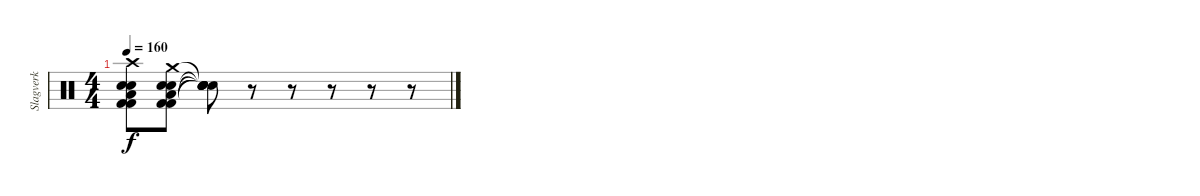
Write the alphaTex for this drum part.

\track ("Slagverk" "Slagverk") {instrument percussion}
\staff {score}
\articulation defaults
\ts (4 4)
\tempo 160
\clef neutral
\ks c
("Crash high (hit)" "Kick (hit) 2" "Snare (hit) 2" "Low Floor Tom (hit)" "Kick (hit) 2" "Snare (hit) 2").8{dy f} ("Crash medium (hit)" "Kick (hit) 2" "Snare (hit) 2" "Low Floor Tom (hit)" "Kick (hit) 2" "Snare (hit) 2").8 ("Snare (hit)"{t} "Snare (hit)"{t} "Snare (hit)"{t} "Snare (hit)"{t} "Snare (hit)"{t}).8 r.8 r.8 r.8 r.8 r.8
